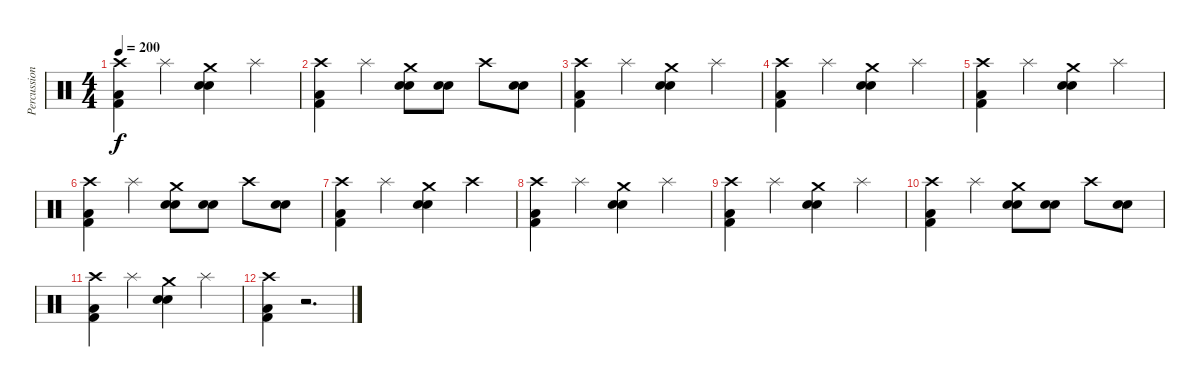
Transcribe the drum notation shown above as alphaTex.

\track ("Percussions" "Percussion") {instrument percussion}
\staff {score}
\articulation defaults
\ts (4 4)
\tempo 200
\clef neutral
\ks c
("Crash high (hit)" "Kick (hit) 2" "Low Floor Tom (hit)").4{dy f} "Splash (hit)".4 ("Crash medium (hit)" "Snare (hit) 2" "Electric Snare (hit)").4 "Splash (hit)".4 |
("Crash high (hit)" "Kick (hit) 2" "Low Floor Tom (hit)").4 "Splash (hit)".4 ("Crash medium (hit)" "Snare (hit) 2" "Electric Snare (hit)").8 ("Snare (hit) 2" "Electric Snare (hit)").8 "Crash high (hit)".8 ("Snare (hit) 2" "Electric Snare (hit)").8 |
("Crash high (hit)" "Kick (hit) 2" "Low Floor Tom (hit)").4 "Splash (hit)".4 ("Crash medium (hit)" "Snare (hit) 2" "Electric Snare (hit)").4 "Splash (hit)".4 |
("Crash high (hit)" "Kick (hit) 2" "Low Floor Tom (hit)").4 "Splash (hit)".4 ("Crash medium (hit)" "Snare (hit) 2" "Electric Snare (hit)").4 "Splash (hit)".4 |
("Crash high (hit)" "Kick (hit) 2" "Low Floor Tom (hit)").4 "Splash (hit)".4 ("Crash medium (hit)" "Snare (hit) 2" "Electric Snare (hit)").4 "Splash (hit)".4 |
("Crash high (hit)" "Kick (hit) 2" "Low Floor Tom (hit)").4 "Splash (hit)".4 ("Crash medium (hit)" "Snare (hit) 2" "Electric Snare (hit)").8 ("Snare (hit) 2" "Electric Snare (hit)").8 "Crash high (hit)".8 ("Snare (hit) 2" "Electric Snare (hit)").8 |
("Crash high (hit)" "Kick (hit) 2" "Low Floor Tom (hit)").4 "Splash (hit)".4 ("Crash medium (hit)" "Snare (hit) 2" "Electric Snare (hit)").4 "Crash high (hit)".4 |
("Crash high (hit)" "Kick (hit) 2" "Low Floor Tom (hit)").4 "Splash (hit)".4 ("Crash medium (hit)" "Snare (hit) 2" "Electric Snare (hit)").4 "Splash (hit)".4 |
("Crash high (hit)" "Kick (hit) 2" "Low Floor Tom (hit)").4 "Splash (hit)".4 ("Crash medium (hit)" "Snare (hit) 2" "Electric Snare (hit)").4 "Splash (hit)".4 |
("Crash high (hit)" "Kick (hit) 2" "Low Floor Tom (hit)").4 "Splash (hit)".4 ("Crash medium (hit)" "Snare (hit) 2" "Electric Snare (hit)").8 ("Snare (hit) 2" "Electric Snare (hit)").8 "Crash high (hit)".8 ("Snare (hit) 2" "Electric Snare (hit)").8 |
("Crash high (hit)" "Kick (hit) 2" "Low Floor Tom (hit)").4 "Splash (hit)".4 ("Crash medium (hit)" "Snare (hit) 2" "Electric Snare (hit)").4 "Splash (hit)".4 |
("Crash high (hit)" "Kick (hit) 2" "Low Floor Tom (hit)").4 r.2{d}
